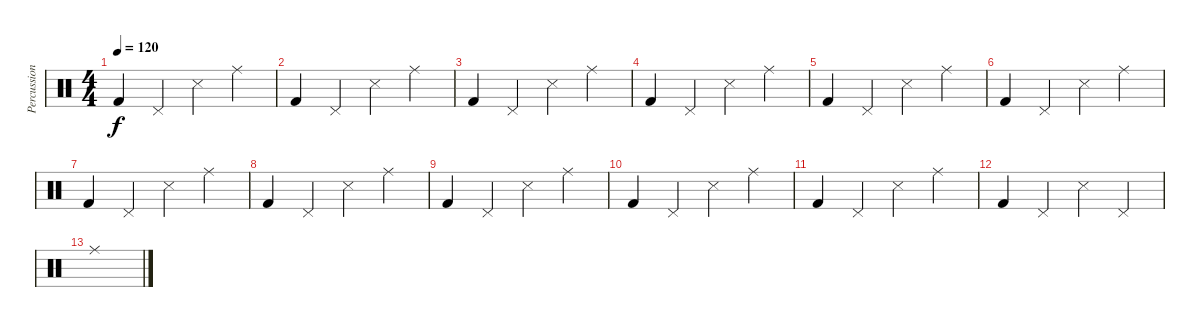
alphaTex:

\track ("Percussion" "Percussion") {instrument percussion}
\staff {score}
\articulation defaults
\ts (4 4)
\tempo 120
\clef neutral
\ks c "Kick (hit) 2".4{dy f} "Pedal Hi-Hat (hit)".4 "Snare (side stick) 3".4 "Ride (middle)".4
|
"Kick (hit) 2".4 "Pedal Hi-Hat (hit)".4 "Snare (side stick) 3".4 "Ride (middle)".4 |
"Kick (hit) 2".4 "Pedal Hi-Hat (hit)".4 "Snare (side stick) 3".4 "Ride (middle)".4 |
"Kick (hit) 2".4 "Pedal Hi-Hat (hit)".4 "Snare (side stick) 3".4 "Ride (middle)".4 |
"Kick (hit) 2".4 "Pedal Hi-Hat (hit)".4 "Snare (side stick) 3".4 "Ride (middle)".4 |
"Kick (hit) 2".4 "Pedal Hi-Hat (hit)".4 "Snare (side stick) 3".4 "Ride (middle)".4 |
"Kick (hit) 2".4 "Pedal Hi-Hat (hit)".4 "Snare (side stick) 3".4 "Ride (middle)".4 |
"Kick (hit) 2".4 "Pedal Hi-Hat (hit)".4 "Snare (side stick) 3".4 "Ride (middle)".4 |
"Kick (hit) 2".4 "Pedal Hi-Hat (hit)".4 "Snare (side stick) 3".4 "Ride (middle)".4 |
"Kick (hit) 2".4 "Pedal Hi-Hat (hit)".4 "Snare (side stick) 3".4 "Ride (middle)".4 |
"Kick (hit) 2".4 "Pedal Hi-Hat (hit)".4 "Snare (side stick) 3".4 "Ride (middle)".4 |
"Kick (hit) 2".4 "Pedal Hi-Hat (hit)".4 "Snare (side stick) 3".4 "Pedal Hi-Hat (hit)".4 |
"Ride (middle)".1
